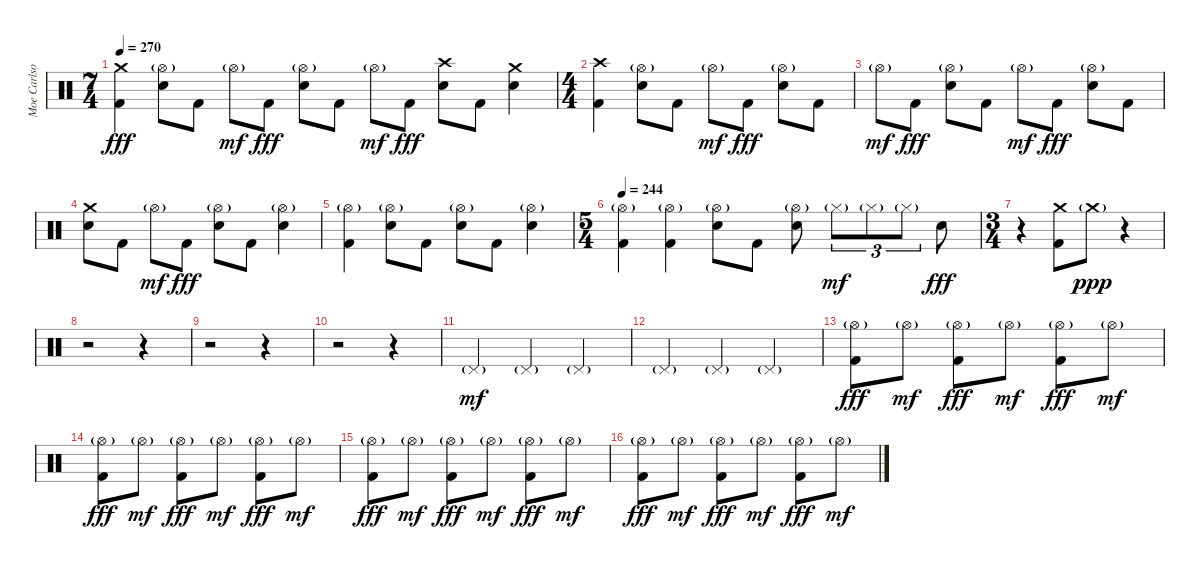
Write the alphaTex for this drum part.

\track ("Moe Carlson" "Moe Carlso") {instrument percussion}
\staff {score}
\articulation defaults
\ts (7 4)
\tempo 270
\clef neutral
\ks c
("Crash medium (hit)" "Kick (hit) 2").4{dy fff} ("Hi-Hat (open)"{g} "Electric Snare (hit)").8 "Kick (hit) 2".8 "Hi-Hat (open)"{g}.8{dy mf} "Kick (hit) 2".8{dy fff} ("Hi-Hat (open)"{g} "Electric Snare (hit)").8 "Kick (hit) 2".8 "Hi-Hat (open)"{g}.8{dy mf} "Kick (hit) 2".8{dy fff} ("Crash high (hit)" "Electric Snare (hit)").8 "Kick (hit) 2".8 ("Crash medium (hit)" "Electric Snare (hit)").4 |
\ts (4 4)
("Crash high (hit)" "Kick (hit) 2").4 ("Hi-Hat (open)"{g} "Electric Snare (hit)").8 "Kick (hit) 2".8 "Hi-Hat (open)"{g}.8{dy mf} "Kick (hit) 2".8{dy fff} ("Hi-Hat (open)"{g} "Electric Snare (hit)").8 "Kick (hit) 2".8 |
"Hi-Hat (open)"{g}.8{dy mf} "Kick (hit) 2".8{dy fff} ("Hi-Hat (open)"{g} "Electric Snare (hit)").8 "Kick (hit) 2".8 "Hi-Hat (open)"{g}.8{dy mf} "Kick (hit) 2".8{dy fff} ("Hi-Hat (open)"{g} "Electric Snare (hit)").8 "Kick (hit) 2".8 |
("Crash medium (hit)" "Electric Snare (hit)").8 "Kick (hit) 2".8 "Hi-Hat (open)"{g}.8{dy mf} "Kick (hit) 2".8{dy fff} ("Hi-Hat (open)"{g} "Electric Snare (hit)").8 "Kick (hit) 2".8 ("Hi-Hat (open)"{g} "Electric Snare (hit)").4 |
("Hi-Hat (open)"{g} "Kick (hit) 2").4 ("Hi-Hat (open)"{g} "Electric Snare (hit)").8 "Kick (hit) 2".8 ("Hi-Hat (open)"{g} "Electric Snare (hit)").8 "Kick (hit) 2".8 ("Hi-Hat (open)"{g} "Electric Snare (hit)").4 |
\ts (5 4)
\tempo 244
("Hi-Hat (open)"{g} "Kick (hit) 2").4 ("Hi-Hat (open)"{g} "Kick (hit) 2").4 ("Hi-Hat (open)"{g} "Electric Snare (hit)").8 "Kick (hit) 2".8 ("Hi-Hat (open)"{g} "Electric Snare (hit)").8 "Hi-Hat (closed)"{g}.8{tu (3 2) dy mf} "Hi-Hat (closed)"{g}.8{tu (3 2)} "Hi-Hat (closed)"{g}.8{tu (3 2)} "Electric Snare (hit)".8{dy fff} |
\ts (3 4)
r.4 ("Crash medium (hit)" "Kick (hit) 2").8 "Crash medium (hit)"{g}.8{dy ppp} r.4 |
r.2 r.4 |
r.2 r.4 |
r.2 r.4 |
"Pedal Hi-Hat (hit)"{g}.4{dy mf} "Pedal Hi-Hat (hit)"{g}.4 "Pedal Hi-Hat (hit)"{g}.4 |
"Pedal Hi-Hat (hit)"{g}.4 "Pedal Hi-Hat (hit)"{g}.4 "Pedal Hi-Hat (hit)"{g}.4 |
("Hi-Hat (open)"{g} "Kick (hit) 2").8{dy fff} "Hi-Hat (open)"{g}.8{dy mf} ("Hi-Hat (open)"{g} "Kick (hit) 2").8{dy fff} "Hi-Hat (open)"{g}.8{dy mf} ("Hi-Hat (open)"{g} "Kick (hit) 2").8{dy fff} "Hi-Hat (open)"{g}.8{dy mf} |
("Hi-Hat (open)"{g} "Kick (hit) 2").8{dy fff} "Hi-Hat (open)"{g}.8{dy mf} ("Hi-Hat (open)"{g} "Kick (hit) 2").8{dy fff} "Hi-Hat (open)"{g}.8{dy mf} ("Hi-Hat (open)"{g} "Kick (hit) 2").8{dy fff} "Hi-Hat (open)"{g}.8{dy mf} |
("Hi-Hat (open)"{g} "Kick (hit) 2").8{dy fff} "Hi-Hat (open)"{g}.8{dy mf} ("Hi-Hat (open)"{g} "Kick (hit) 2").8{dy fff} "Hi-Hat (open)"{g}.8{dy mf} ("Hi-Hat (open)"{g} "Kick (hit) 2").8{dy fff} "Hi-Hat (open)"{g}.8{dy mf} |
("Hi-Hat (open)"{g} "Kick (hit) 2").8{dy fff} "Hi-Hat (open)"{g}.8{dy mf} ("Hi-Hat (open)"{g} "Kick (hit) 2").8{dy fff} "Hi-Hat (open)"{g}.8{dy mf} ("Hi-Hat (open)"{g} "Kick (hit) 2").8{dy fff} "Hi-Hat (open)"{g}.8{dy mf}
